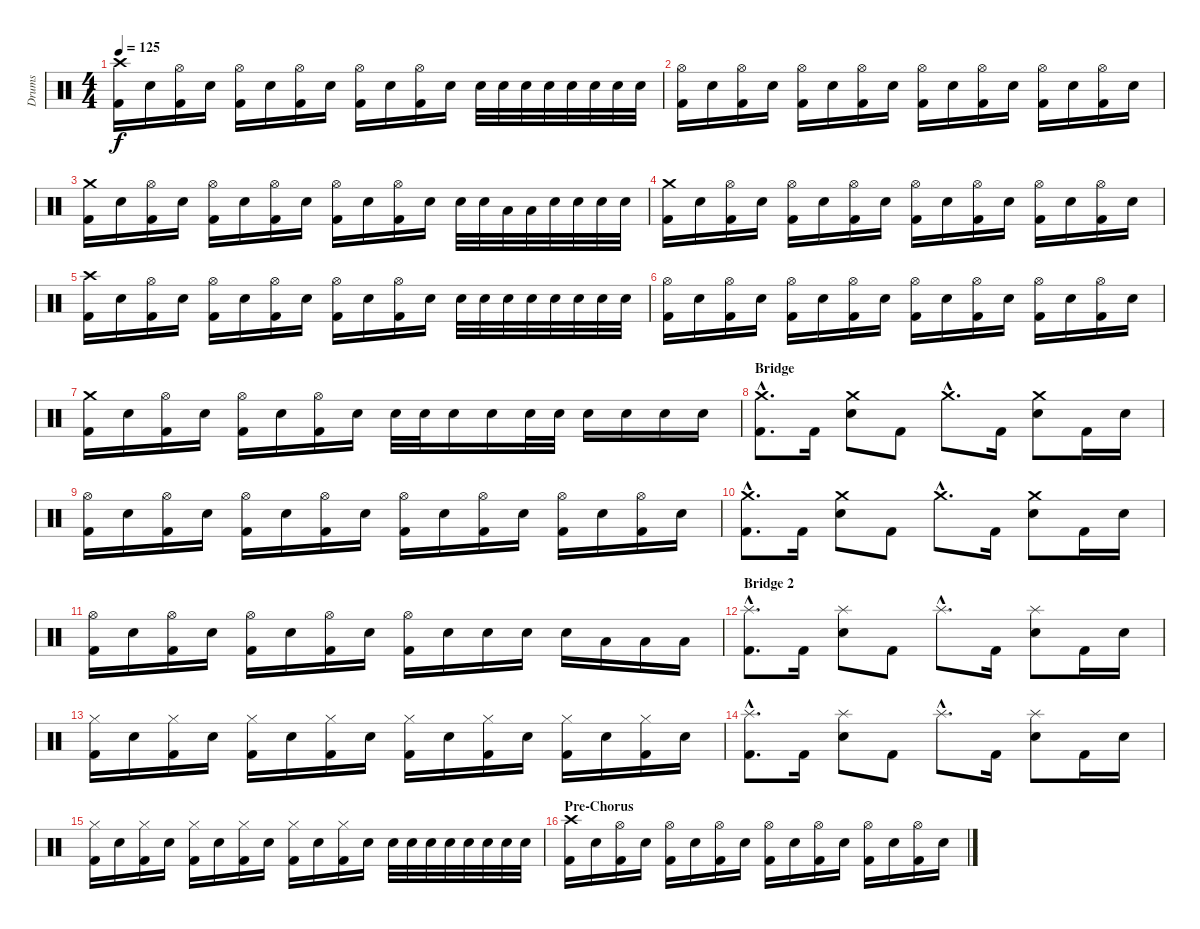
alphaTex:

\track ("Drums" "Drums") {instrument percussion}
\staff {score}
\articulation defaults
\ts (4 4)
\tempo 125
\clef neutral
\ks c
("Crash high (hit)" "Kick (hit) 2").16{dy f} "Electric Snare (hit)".16 ("Hi-Hat (open)" "Kick (hit) 2").16 "Electric Snare (hit)".16 ("Hi-Hat (open)" "Kick (hit) 2").16 "Electric Snare (hit)".16 ("Hi-Hat (open)" "Kick (hit) 2").16 "Electric Snare (hit)".16 ("Hi-Hat (open)" "Kick (hit) 2").16 "Electric Snare (hit)".16 ("Hi-Hat (open)" "Kick (hit) 2").16 "Electric Snare (hit)".16 "Electric Snare (hit)".32 "Electric Snare (hit)".32 "Electric Snare (hit)".32 "Electric Snare (hit)".32 "Electric Snare (hit)".32 "Electric Snare (hit)".32 "Electric Snare (hit)".32 "Electric Snare (hit)".32 |
("Hi-Hat (open)" "Kick (hit) 2").16 "Electric Snare (hit)".16 ("Hi-Hat (open)" "Kick (hit) 2").16 "Electric Snare (hit)".16 ("Hi-Hat (open)" "Kick (hit) 2").16 "Electric Snare (hit)".16 ("Hi-Hat (open)" "Kick (hit) 2").16 "Electric Snare (hit)".16 ("Hi-Hat (open)" "Kick (hit) 2").16 "Electric Snare (hit)".16 ("Hi-Hat (open)" "Kick (hit) 2").16 "Electric Snare (hit)".16 ("Hi-Hat (open)" "Kick (hit) 2").16 "Electric Snare (hit)".16 ("Hi-Hat (open)" "Kick (hit) 2").16 "Electric Snare (hit)".16 |
("Crash medium (hit)" "Kick (hit) 2").16 "Electric Snare (hit)".16 ("Hi-Hat (open)" "Kick (hit) 2").16 "Electric Snare (hit)".16 ("Hi-Hat (open)" "Kick (hit) 2").16 "Electric Snare (hit)".16 ("Hi-Hat (open)" "Kick (hit) 2").16 "Electric Snare (hit)".16 ("Hi-Hat (open)" "Kick (hit) 2").16 "Electric Snare (hit)".16 ("Hi-Hat (open)" "Kick (hit) 2").16 "Electric Snare (hit)".16 "Electric Snare (hit)".32 "Electric Snare (hit)".32 "Low Tom (hit)".32 "Low Tom (hit)".32 "Electric Snare (hit)".32 "Electric Snare (hit)".32 "Electric Snare (hit)".32 "Electric Snare (hit)".32 |
("Crash medium (hit)" "Kick (hit) 2").16 "Electric Snare (hit)".16 ("Hi-Hat (open)" "Kick (hit) 2").16 "Electric Snare (hit)".16 ("Hi-Hat (open)" "Kick (hit) 2").16 "Electric Snare (hit)".16 ("Hi-Hat (open)" "Kick (hit) 2").16 "Electric Snare (hit)".16 ("Hi-Hat (open)" "Kick (hit) 2").16 "Electric Snare (hit)".16 ("Hi-Hat (open)" "Kick (hit) 2").16 "Electric Snare (hit)".16 ("Hi-Hat (open)" "Kick (hit) 2").16 "Electric Snare (hit)".16 ("Hi-Hat (open)" "Kick (hit) 2").16 "Electric Snare (hit)".16 |
("Crash high (hit)" "Kick (hit) 2").16 "Electric Snare (hit)".16 ("Hi-Hat (open)" "Kick (hit) 2").16 "Electric Snare (hit)".16 ("Hi-Hat (open)" "Kick (hit) 2").16 "Electric Snare (hit)".16 ("Hi-Hat (open)" "Kick (hit) 2").16 "Electric Snare (hit)".16 ("Hi-Hat (open)" "Kick (hit) 2").16 "Electric Snare (hit)".16 ("Hi-Hat (open)" "Kick (hit) 2").16 "Electric Snare (hit)".16 "Electric Snare (hit)".32 "Electric Snare (hit)".32 "Electric Snare (hit)".32 "Electric Snare (hit)".32 "Electric Snare (hit)".32 "Electric Snare (hit)".32 "Electric Snare (hit)".32 "Electric Snare (hit)".32 |
("Hi-Hat (open)" "Kick (hit) 2").16 "Electric Snare (hit)".16 ("Hi-Hat (open)" "Kick (hit) 2").16 "Electric Snare (hit)".16 ("Hi-Hat (open)" "Kick (hit) 2").16 "Electric Snare (hit)".16 ("Hi-Hat (open)" "Kick (hit) 2").16 "Electric Snare (hit)".16 ("Hi-Hat (open)" "Kick (hit) 2").16 "Electric Snare (hit)".16 ("Hi-Hat (open)" "Kick (hit) 2").16 "Electric Snare (hit)".16 ("Hi-Hat (open)" "Kick (hit) 2").16 "Electric Snare (hit)".16 ("Hi-Hat (open)" "Kick (hit) 2").16 "Electric Snare (hit)".16 |
("Crash medium (hit)" "Kick (hit) 2").16 "Electric Snare (hit)".16 ("Hi-Hat (open)" "Kick (hit) 2").16 "Electric Snare (hit)".16 ("Hi-Hat (open)" "Kick (hit) 2").16 "Electric Snare (hit)".16 ("Hi-Hat (open)" "Kick (hit) 2").16 "Electric Snare (hit)".16 "Electric Snare (hit)".32 "Electric Snare (hit)".32 "Electric Snare (hit)".16 "Electric Snare (hit)".16 "Electric Snare (hit)".32 "Electric Snare (hit)".32 "Electric Snare (hit)".16 "Electric Snare (hit)".16 "Electric Snare (hit)".16 "Electric Snare (hit)".16 |
\section ("" "Bridge")
("Crash medium (hit)"{hac} "Kick (hit) 2"{hac}).8{d} "Kick (hit) 2".16 ("Crash medium (hit)" "Electric Snare (hit)").8 "Kick (hit) 2".8 "Crash medium (hit)"{hac}.8{d} "Kick (hit) 2".16 ("Crash medium (hit)" "Electric Snare (hit)").8 "Kick (hit) 2".16 "Electric Snare (hit)".16 |
("Hi-Hat (open)" "Kick (hit) 2").16 "Electric Snare (hit)".16 ("Hi-Hat (open)" "Kick (hit) 2").16 "Electric Snare (hit)".16 ("Hi-Hat (open)" "Kick (hit) 2").16 "Electric Snare (hit)".16 ("Hi-Hat (open)" "Kick (hit) 2").16 "Electric Snare (hit)".16 ("Hi-Hat (open)" "Kick (hit) 2").16 "Electric Snare (hit)".16 ("Hi-Hat (open)" "Kick (hit) 2").16 "Electric Snare (hit)".16 ("Hi-Hat (open)" "Kick (hit) 2").16 "Electric Snare (hit)".16 ("Hi-Hat (open)" "Kick (hit) 2").16 "Electric Snare (hit)".16 |
("Crash medium (hit)"{hac} "Kick (hit) 2"{hac}).8{d} "Kick (hit) 2".16 ("Crash medium (hit)" "Electric Snare (hit)").8 "Kick (hit) 2".8 "Crash medium (hit)"{hac}.8{d} "Kick (hit) 2".16 ("Crash medium (hit)" "Electric Snare (hit)").8 "Kick (hit) 2".16 "Electric Snare (hit)".16 |
("Hi-Hat (open)" "Kick (hit) 2").16 "Electric Snare (hit)".16 ("Hi-Hat (open)" "Kick (hit) 2").16 "Electric Snare (hit)".16 ("Hi-Hat (open)" "Kick (hit) 2").16 "Electric Snare (hit)".16 ("Hi-Hat (open)" "Kick (hit) 2").16 "Electric Snare (hit)".16 ("Hi-Hat (open)" "Kick (hit) 2").16 "Electric Snare (hit)".16 "Electric Snare (hit)".16 "Electric Snare (hit)".16 "Electric Snare (hit)".16 "Low Tom (hit)".16 "Low Tom (hit)".16 "Low Tom (hit)".16 |
\section ("" "Bridge 2")
("Splash (hit)"{hac} "Kick (hit) 2"{hac}).8{d} "Kick (hit) 2".16 ("Splash (hit)" "Electric Snare (hit)").8 "Kick (hit) 2".8 "Splash (hit)"{hac}.8{d} "Kick (hit) 2".16 ("Splash (hit)" "Electric Snare (hit)").8 "Kick (hit) 2".16 "Electric Snare (hit)".16 |
("Hi-Hat (closed)" "Kick (hit) 2").16 "Electric Snare (hit)".16 ("Hi-Hat (closed)" "Kick (hit) 2").16 "Electric Snare (hit)".16 ("Hi-Hat (closed)" "Kick (hit) 2").16 "Electric Snare (hit)".16 ("Hi-Hat (closed)" "Kick (hit) 2").16 "Electric Snare (hit)".16 ("Hi-Hat (closed)" "Kick (hit) 2").16 "Electric Snare (hit)".16 ("Hi-Hat (closed)" "Kick (hit) 2").16 "Electric Snare (hit)".16 ("Hi-Hat (closed)" "Kick (hit) 2").16 "Electric Snare (hit)".16 ("Hi-Hat (closed)" "Kick (hit) 2").16 "Electric Snare (hit)".16 |
("Splash (hit)"{hac} "Kick (hit) 2"{hac}).8{d} "Kick (hit) 2".16 ("Splash (hit)" "Electric Snare (hit)").8 "Kick (hit) 2".8 "Splash (hit)"{hac}.8{d} "Kick (hit) 2".16 ("Splash (hit)" "Electric Snare (hit)").8 "Kick (hit) 2".16 "Electric Snare (hit)".16 |
("Hi-Hat (closed)" "Kick (hit) 2").16 "Electric Snare (hit)".16 ("Hi-Hat (closed)" "Kick (hit) 2").16 "Electric Snare (hit)".16 ("Hi-Hat (closed)" "Kick (hit) 2").16 "Electric Snare (hit)".16 ("Hi-Hat (closed)" "Kick (hit) 2").16 "Electric Snare (hit)".16 ("Hi-Hat (closed)" "Kick (hit) 2").16 "Electric Snare (hit)".16 ("Hi-Hat (closed)" "Kick (hit) 2").16 "Electric Snare (hit)".16 "Electric Snare (hit)".32 "Electric Snare (hit)".32 "Electric Snare (hit)".32 "Electric Snare (hit)".32 "Electric Snare (hit)".32 "Electric Snare (hit)".32 "Electric Snare (hit)".32 "Electric Snare (hit)".32 |
\section ("" "Pre-Chorus")
("Crash high (hit)" "Kick (hit) 2").16 "Electric Snare (hit)".16 ("Hi-Hat (open)" "Kick (hit) 2").16 "Electric Snare (hit)".16 ("Hi-Hat (open)" "Kick (hit) 2").16 "Electric Snare (hit)".16 ("Hi-Hat (open)" "Kick (hit) 2").16 "Electric Snare (hit)".16 ("Hi-Hat (open)" "Kick (hit) 2").16 "Electric Snare (hit)".16 ("Hi-Hat (open)" "Kick (hit) 2").16 "Electric Snare (hit)".16 ("Hi-Hat (open)" "Kick (hit) 2").16 "Electric Snare (hit)".16 ("Hi-Hat (open)" "Kick (hit) 2").16 "Electric Snare (hit)".16
